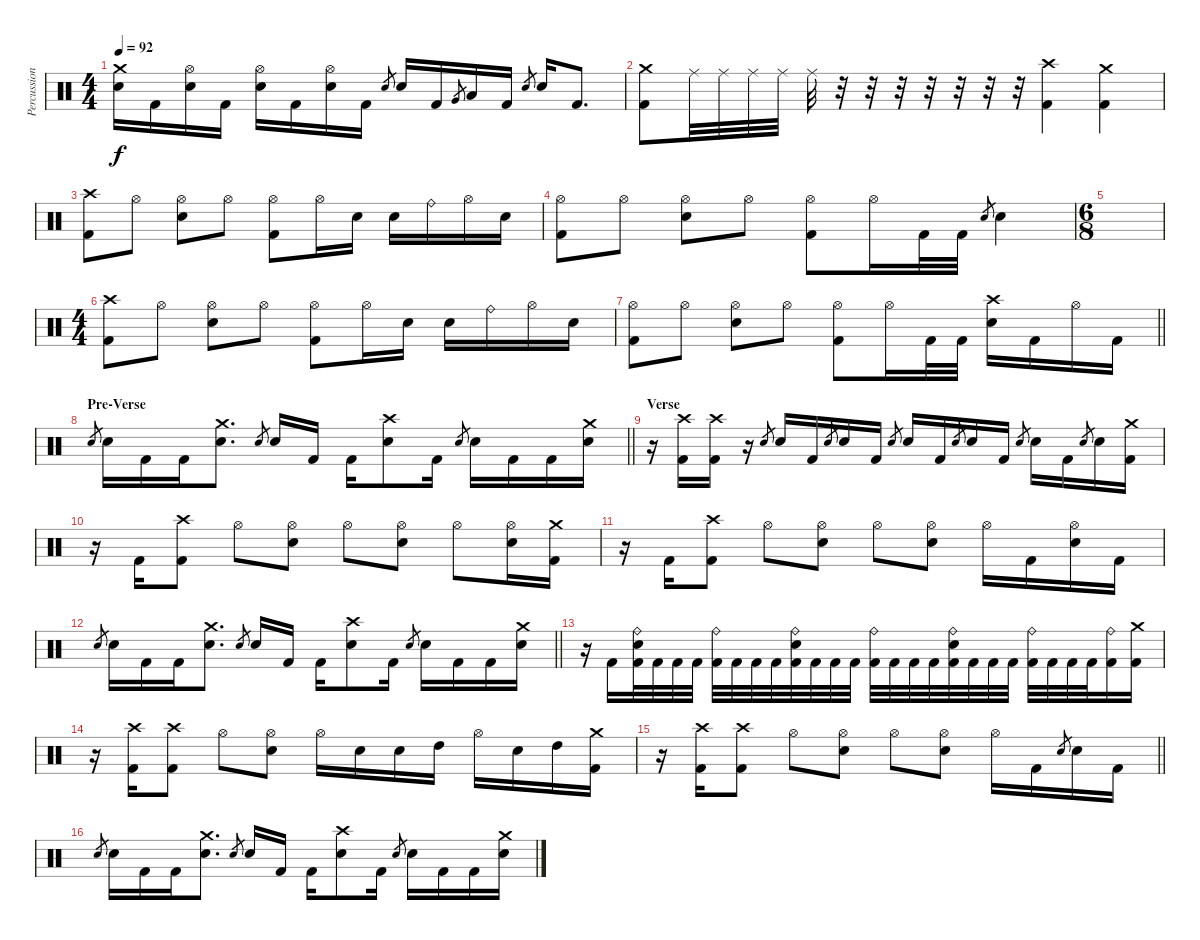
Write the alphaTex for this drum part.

\track ("Percussion" "Percussion") {solo instrument percussion}
\staff {score}
\articulation defaults
\ts (4 4)
\tempo 92
\clef neutral
\ks c
("Crash medium (hit)" "Electric Snare (hit)").16{dy f} "Kick (hit) 2".16 ("Hi-Hat (open)" "Electric Snare (hit)").16 "Kick (hit) 2".16 ("Hi-Hat (open)" "Electric Snare (hit)").16 "Kick (hit) 2".16 ("Hi-Hat (open)" "Electric Snare (hit)").16 "Kick (hit) 2".16 "Electric Snare (hit)".8{gr} "Electric Snare (hit)".16 "Kick (hit) 2".16 "Very Low Tom (hit)".8{gr} "Low Floor Tom (hit)".16 "Kick (hit) 2".16 "Electric Snare (hit)".8{gr} "Electric Snare (hit)".16 "Kick (hit) 2".8{d} |
("Crash medium (hit)" "Kick (hit) 2").8 "Ride (middle)".32 "Ride (middle)".32 "Ride (middle)".32 "Ride (middle)".32 "Ride (middle)".32 r.32 r.32 r.32 r.32 r.32 r.32 r.32 ("Crash high (hit)" "Kick (hit) 2").4 ("Crash medium (hit)" "Kick (hit) 2").4 |
("Crash high (hit)" "Kick (hit) 2").8 "Hi-Hat (open)".8 ("Hi-Hat (open)" "Electric Snare (hit)").8 "Hi-Hat (open)".8 ("Hi-Hat (open)" "Kick (hit) 2").8 "Hi-Hat (open)".16 "Electric Snare (hit)".16 "Electric Snare (hit)".16 "Ride (bell)".16 "Hi-Hat (open)".16 "Electric Snare (hit)".16 |
("Hi-Hat (open)" "Kick (hit) 2").8 "Hi-Hat (open)".8 ("Hi-Hat (open)" "Electric Snare (hit)").8 "Hi-Hat (open)".8 ("Hi-Hat (open)" "Kick (hit) 2").8 "Hi-Hat (open)".16 "Kick (hit) 2".32 "Kick (hit) 2".32 "Electric Snare (hit)".8{gr} "Electric Snare (hit)".4 |
\ts (6 8)
|
\ts (4 4)
("Crash high (hit)" "Kick (hit) 2").8 "Hi-Hat (open)".8 ("Hi-Hat (open)" "Electric Snare (hit)").8 "Hi-Hat (open)".8 ("Hi-Hat (open)" "Kick (hit) 2").8 "Hi-Hat (open)".16 "Electric Snare (hit)".16 "Electric Snare (hit)".16 "Ride (bell)".16 "Hi-Hat (open)".16 "Electric Snare (hit)".16 |
\barLineRight lightlight
("Hi-Hat (open)" "Kick (hit) 2").8 "Hi-Hat (open)".8 ("Hi-Hat (open)" "Electric Snare (hit)").8 "Hi-Hat (open)".8 ("Hi-Hat (open)" "Kick (hit) 2").8 "Hi-Hat (open)".16 "Kick (hit) 2".32 "Kick (hit) 2".32 ("Crash high (hit)" "Electric Snare (hit)").16 "Kick (hit) 2".16 "Hi-Hat (open)".16 "Kick (hit) 2".16 |
\section ("" "Pre-Verse")
\barLineRight lightlight "Electric Snare (hit)".8{gr} "Electric Snare (hit)".16 "Kick (hit) 2".16 "Kick (hit) 2".16
("Crash medium (hit)" "Electric Snare (hit)").8{d} "Electric Snare (hit)".8{gr} "Electric Snare (hit)".16 "Kick (hit) 2".16 "Kick (hit) 2".16 ("Crash high (hit)" "Electric Snare (hit)").8 "Kick (hit) 2".16 "Electric Snare (hit)".8{gr} "Electric Snare (hit)".16 "Kick (hit) 2".16 "Kick (hit) 2".16 ("Crash medium (hit)" "Electric Snare (hit)").16 |
\section ("" "Verse")
r.16 ("Crash high (hit)" "Kick (hit) 2").16 ("Crash high (hit)" "Kick (hit) 2").16 r.16 "Electric Snare (hit)".8{gr} "Electric Snare (hit)".16 "Kick (hit) 2".16 "Electric Snare (hit)".8{gr} "Electric Snare (hit)".16 "Kick (hit) 2".16 "Electric Snare (hit)".8{gr} "Electric Snare (hit)".16 "Kick (hit) 2".16 "Electric Snare (hit)".8{gr} "Electric Snare (hit)".16 "Kick (hit) 2".16 "Electric Snare (hit)".8{gr} "Electric Snare (hit)".16 "Kick (hit) 2".16 "Electric Snare (hit)".8{gr} "Electric Snare (hit)".16 ("Crash medium (hit)" "Kick (hit) 2").16 |
r.16 "Kick (hit) 2".16 ("Crash high (hit)" "Kick (hit) 2").8 "Hi-Hat (open)".8 ("Hi-Hat (open)" "Electric Snare (hit)").8 "Hi-Hat (open)".8 ("Hi-Hat (open)" "Electric Snare (hit)").8 "Hi-Hat (open)".8 ("Hi-Hat (open)" "Electric Snare (hit)").16 ("Crash medium (hit)" "Kick (hit) 2").16 |
r.16 "Kick (hit) 2".16 ("Crash high (hit)" "Kick (hit) 2").8 "Hi-Hat (open)".8 ("Hi-Hat (open)" "Electric Snare (hit)").8 "Hi-Hat (open)".8 ("Hi-Hat (open)" "Electric Snare (hit)").8 "Hi-Hat (open)".16 "Kick (hit) 2".16 ("Hi-Hat (open)" "Electric Snare (hit)").16 "Kick (hit) 2".16 |
\barLineRight lightlight "Electric Snare (hit)".8{gr} "Electric Snare (hit)".16 "Kick (hit) 2".16 "Kick (hit) 2".16
("Crash medium (hit)" "Electric Snare (hit)").8{d} "Electric Snare (hit)".8{gr} "Electric Snare (hit)".16 "Kick (hit) 2".16 "Kick (hit) 2".16 ("Crash high (hit)" "Electric Snare (hit)").8 "Kick (hit) 2".16 "Electric Snare (hit)".8{gr} "Electric Snare (hit)".16 "Kick (hit) 2".16 "Kick (hit) 2".16 ("Crash medium (hit)" "Electric Snare (hit)").16 |
r.16 "Kick (hit) 2".16 ("Ride (bell)" "Electric Snare (hit)" "Kick (hit) 2").32 "Kick (hit) 2".32 "Kick (hit) 2".32 "Kick (hit) 2".32 ("Ride (bell)" "Kick (hit) 2").32 "Kick (hit) 2".32 "Kick (hit) 2".32 "Kick (hit) 2".32 ("Ride (bell)" "Electric Snare (hit)" "Kick (hit) 2").32 "Kick (hit) 2".32 "Kick (hit) 2".32 "Kick (hit) 2".32 ("Ride (bell)" "Kick (hit) 2").32 "Kick (hit) 2".32 "Kick (hit) 2".32 "Kick (hit) 2".32 ("Ride (bell)" "Electric Snare (hit)" "Kick (hit) 2").32 "Kick (hit) 2".32 "Kick (hit) 2".32 "Kick (hit) 2".32 ("Ride (bell)" "Kick (hit) 2").32 "Kick (hit) 2".32 "Kick (hit) 2".32 "Kick (hit) 2".32 ("Ride (bell)" "Kick (hit) 2").16 ("Crash medium (hit)" "Kick (hit) 2").16 |
r.16 ("Crash high (hit)" "Kick (hit) 2").16 ("Crash high (hit)" "Kick (hit) 2").8 "Hi-Hat (open)".8 ("Hi-Hat (open)" "Electric Snare (hit)").8 "Hi-Hat (open)".16 "Electric Snare (hit)".16 "Electric Snare (hit)".16 "High Tom (hit)".16 "Hi-Hat (open)".16 "Electric Snare (hit)".16 "High Tom (hit)".16 ("Crash medium (hit)" "Kick (hit) 2").16 |
\barLineRight lightlight
r.16 ("Crash high (hit)" "Kick (hit) 2").16 ("Crash high (hit)" "Kick (hit) 2").8 "Hi-Hat (open)".8 ("Hi-Hat (open)" "Electric Snare (hit)").8 "Hi-Hat (open)".8 ("Hi-Hat (open)" "Electric Snare (hit)").8 "Hi-Hat (open)".16 "Kick (hit) 2".16 "Electric Snare (hit)".8{gr} "Electric Snare (hit)".16 "Kick (hit) 2".16 |
"Electric Snare (hit)".8{gr} "Electric Snare (hit)".16 "Kick (hit) 2".16 "Kick (hit) 2".16 ("Crash medium (hit)" "Electric Snare (hit)").8{d} "Electric Snare (hit)".8{gr} "Electric Snare (hit)".16 "Kick (hit) 2".16 "Kick (hit) 2".16 ("Crash high (hit)" "Electric Snare (hit)").8 "Kick (hit) 2".16 "Electric Snare (hit)".8{gr} "Electric Snare (hit)".16 "Kick (hit) 2".16 "Kick (hit) 2".16 ("Crash medium (hit)" "Electric Snare (hit)").16
